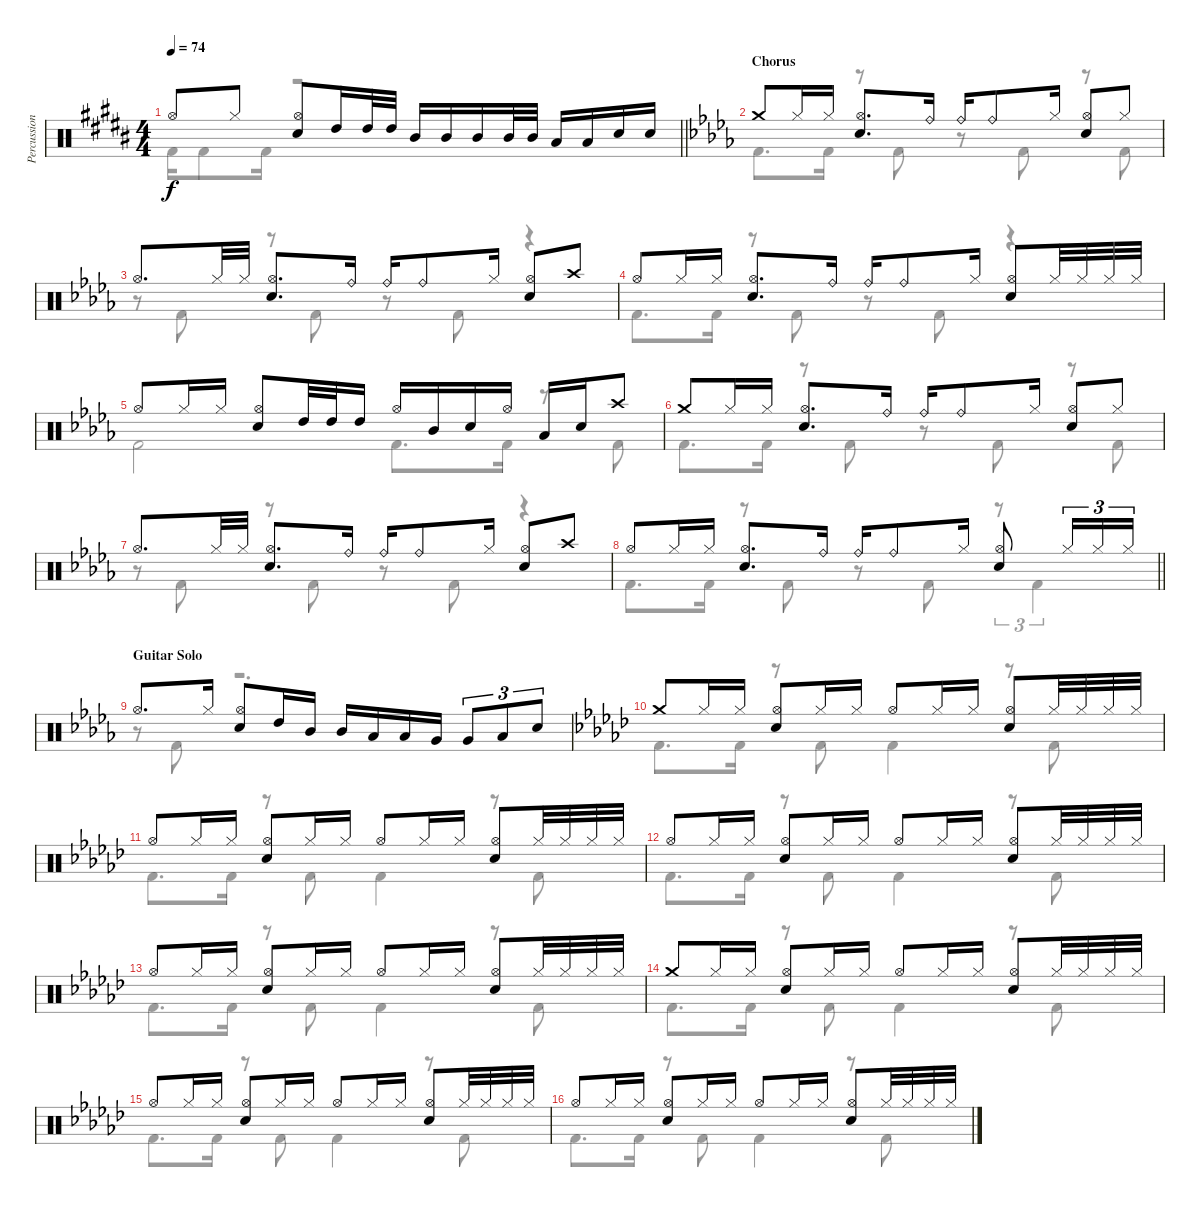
\track ("Percussion" "Percussion") {instrument percussion}
\staff {score}
\articulation defaults
\voice
\ts (4 4)
\tempo 74
\clef neutral
\barLineRight lightlight
\ks g#minor "Hi-Hat (open)".8{dy f} "Hi-Hat (closed)".8
("Hi-Hat (open)" "Snare (hit) 2").8 "High Tom (hit)".16 "High Tom (hit)".32 "High Tom (hit)".32 "Mid Tom (hit)".16 "Mid Tom (hit)".16 "Mid Tom (hit)".16 "Mid Tom (hit)".32 "Mid Tom (hit)".32 "Low Tom (hit)".16 "Low Tom (hit)".16 "Snare (hit) 2".16 "Snare (hit) 2".16 |
\section ("" "Chorus")
\ks db "Crash medium (hit)".8 "Hi-Hat (closed)".16 "Hi-Hat (closed)".16
("Hi-Hat (open)" "Snare (hit) 2").8{d} "Ride (bell)".16 "Ride (bell)".16 "Ride (bell)".8 "Hi-Hat (closed)".16 ("Hi-Hat (open)" "Snare (hit) 2").8 "Hi-Hat (closed)".8 |
"Hi-Hat (open)".8{d} "Hi-Hat (closed)".32 "Hi-Hat (closed)".32 ("Hi-Hat (open)" "Snare (hit) 2").8{d} "Ride (bell)".16 "Ride (bell)".16 "Ride (bell)".8 "Hi-Hat (closed)".16 ("Hi-Hat (open)" "Snare (hit) 2").8 "Crash high (hit)".8 |
"Hi-Hat (open)".8 "Hi-Hat (closed)".16 "Hi-Hat (closed)".16 ("Hi-Hat (open)" "Snare (hit) 2").8{d} "Ride (bell)".16 "Ride (bell)".16 "Ride (bell)".8 "Hi-Hat (closed)".16 ("Hi-Hat (open)" "Snare (hit) 2").8 "Hi-Hat (closed)".32 "Hi-Hat (closed)".32 "Hi-Hat (closed)".32 "Hi-Hat (closed)".32 |
"Hi-Hat (open)".8 "Hi-Hat (closed)".16 "Hi-Hat (closed)".16 ("Hi-Hat (open)" "Snare (hit) 2").8 "High Tom (hit)".32 "High Tom (hit)".32 "High Tom (hit)".16 "Hi-Hat (open)".16 "Mid Tom (hit)".16 "Snare (hit) 2".16 "Hi-Hat (open)".16 "Low Tom (hit)".16 "Snare (hit) 2".16 "Crash high (hit)".8 |
"Crash medium (hit)".8 "Hi-Hat (closed)".16 "Hi-Hat (closed)".16 ("Hi-Hat (open)" "Snare (hit) 2").8{d} "Ride (bell)".16 "Ride (bell)".16 "Ride (bell)".8 "Hi-Hat (closed)".16 ("Hi-Hat (open)" "Snare (hit) 2").8 "Hi-Hat (closed)".8 |
"Hi-Hat (open)".8{d} "Hi-Hat (closed)".32 "Hi-Hat (closed)".32 ("Hi-Hat (open)" "Snare (hit) 2").8{d} "Ride (bell)".16 "Ride (bell)".16 "Ride (bell)".8 "Hi-Hat (closed)".16 ("Hi-Hat (open)" "Snare (hit) 2").8 "Crash high (hit)".8 |
\barLineRight lightlight "Hi-Hat (open)".8 "Hi-Hat (closed)".16 "Hi-Hat (closed)".16
("Hi-Hat (open)" "Snare (hit) 2").8{d} "Ride (bell)".16 "Ride (bell)".16 "Ride (bell)".8 "Hi-Hat (closed)".16 ("Hi-Hat (open)" "Snare (hit) 2").8 "Hi-Hat (closed)".16{tu (3 2)} "Hi-Hat (closed)".16{tu (3 2)} "Hi-Hat (closed)".16{tu (3 2)} |
\section ("" "Guitar Solo")
"Hi-Hat (open)".8{d} "Hi-Hat (closed)".16 ("Hi-Hat (open)" "Snare (hit) 2").8 "High Tom (hit)".16 "Mid Tom (hit)".16 "Mid Tom (hit)".16 "Low Tom (hit)".16 "Low Tom (hit)".16 "Very Low Tom (hit)".16 "Very Low Tom (hit)".8{tu (3 2)} "Low Floor Tom (hit)".8{tu (3 2)} "Snare (hit) 2".8{tu (3 2)} |
\ks ebminor "Crash medium (hit)".8 "Hi-Hat (closed)".16 "Hi-Hat (closed)".16
("Hi-Hat (open)" "Snare (hit) 2").8 "Hi-Hat (closed)".16 "Hi-Hat (closed)".16 "Hi-Hat (open)".8 "Hi-Hat (closed)".16 "Hi-Hat (closed)".16 ("Hi-Hat (open)" "Snare (hit) 2").8 "Hi-Hat (closed)".32 "Hi-Hat (closed)".32 "Hi-Hat (closed)".32 "Hi-Hat (closed)".32 |
"Hi-Hat (open)".8 "Hi-Hat (closed)".16 "Hi-Hat (closed)".16 ("Hi-Hat (open)" "Snare (hit) 2").8 "Hi-Hat (closed)".16 "Hi-Hat (closed)".16 "Hi-Hat (open)".8 "Hi-Hat (closed)".16 "Hi-Hat (closed)".16 ("Hi-Hat (open)" "Snare (hit) 2").8 "Hi-Hat (closed)".32 "Hi-Hat (closed)".32 "Hi-Hat (closed)".32 "Hi-Hat (closed)".32 |
"Hi-Hat (open)".8 "Hi-Hat (closed)".16 "Hi-Hat (closed)".16 ("Hi-Hat (open)" "Snare (hit) 2").8 "Hi-Hat (closed)".16 "Hi-Hat (closed)".16 "Hi-Hat (open)".8 "Hi-Hat (closed)".16 "Hi-Hat (closed)".16 ("Hi-Hat (open)" "Snare (hit) 2").8 "Hi-Hat (closed)".32 "Hi-Hat (closed)".32 "Hi-Hat (closed)".32 "Hi-Hat (closed)".32 |
"Hi-Hat (open)".8 "Hi-Hat (closed)".16 "Hi-Hat (closed)".16 ("Hi-Hat (open)" "Snare (hit) 2").8 "Hi-Hat (closed)".16 "Hi-Hat (closed)".16 "Hi-Hat (open)".8 "Hi-Hat (closed)".16 "Hi-Hat (closed)".16 ("Hi-Hat (open)" "Snare (hit) 2").8 "Hi-Hat (closed)".32 "Hi-Hat (closed)".32 "Hi-Hat (closed)".32 "Hi-Hat (closed)".32 |
"Crash medium (hit)".8 "Hi-Hat (closed)".16 "Hi-Hat (closed)".16 ("Hi-Hat (open)" "Snare (hit) 2").8 "Hi-Hat (closed)".16 "Hi-Hat (closed)".16 "Hi-Hat (open)".8 "Hi-Hat (closed)".16 "Hi-Hat (closed)".16 ("Hi-Hat (open)" "Snare (hit) 2").8 "Hi-Hat (closed)".32 "Hi-Hat (closed)".32 "Hi-Hat (closed)".32 "Hi-Hat (closed)".32 |
"Hi-Hat (open)".8 "Hi-Hat (closed)".16 "Hi-Hat (closed)".16 ("Hi-Hat (open)" "Snare (hit) 2").8 "Hi-Hat (closed)".16 "Hi-Hat (closed)".16 "Hi-Hat (open)".8 "Hi-Hat (closed)".16 "Hi-Hat (closed)".16 ("Hi-Hat (open)" "Snare (hit) 2").8 "Hi-Hat (closed)".32 "Hi-Hat (closed)".32 "Hi-Hat (closed)".32 "Hi-Hat (closed)".32 |
"Hi-Hat (open)".8 "Hi-Hat (closed)".16 "Hi-Hat (closed)".16 ("Hi-Hat (open)" "Snare (hit) 2").8 "Hi-Hat (closed)".16 "Hi-Hat (closed)".16 "Hi-Hat (open)".8 "Hi-Hat (closed)".16 "Hi-Hat (closed)".16 ("Hi-Hat (open)" "Snare (hit) 2").8 "Hi-Hat (closed)".32 "Hi-Hat (closed)".32 "Hi-Hat (closed)".32 "Hi-Hat (closed)".32
\voice
\clef neutral
\ottava regular
\simile none
\barLineRight lightlight
\ks g#minor "Kick (hit) 2".16{dy f} "Kick (hit) 2".8 "Kick (hit) 2".16
r.2{d} |
\ks db "Kick (hit) 2".8{d} "Kick (hit) 2".16
r.8 "Kick (hit) 2".8 r.8 "Kick (hit) 2".8 r.8 "Kick (hit) 2".8 |
r.8 "Kick (hit) 2".8 r.8 "Kick (hit) 2".8 r.8 "Kick (hit) 2".8 r.4 |
"Kick (hit) 2".8{d} "Kick (hit) 2".16 r.8 "Kick (hit) 2".8 r.8 "Kick (hit) 2".8 r.4 |
"Kick (hit) 2".2 "Kick (hit) 2".8{d} "Kick (hit) 2".16 r.8 "Kick (hit) 2".8 |
"Kick (hit) 2".8{d} "Kick (hit) 2".16 r.8 "Kick (hit) 2".8 r.8 "Kick (hit) 2".8 r.8 "Kick (hit) 2".8 |
r.8 "Kick (hit) 2".8 r.8 "Kick (hit) 2".8 r.8 "Kick (hit) 2".8 r.4 |
\barLineRight lightlight "Kick (hit) 2".8{d} "Kick (hit) 2".16
r.8 "Kick (hit) 2".8 r.8 "Kick (hit) 2".8 r.8{tu (3 2)} "Kick (hit) 2".4{tu (3 2)} |
r.8 "Kick (hit) 2".8 r.2{d} |
\ks ebminor "Kick (hit) 2".8{d} "Kick (hit) 2".16
r.8 "Kick (hit) 2".8 "Kick (hit) 2".4 r.8 "Kick (hit) 2".8 |
"Kick (hit) 2".8{d} "Kick (hit) 2".16 r.8 "Kick (hit) 2".8 "Kick (hit) 2".4 r.8 "Kick (hit) 2".8 |
"Kick (hit) 2".8{d} "Kick (hit) 2".16 r.8 "Kick (hit) 2".8 "Kick (hit) 2".4 r.8 "Kick (hit) 2".8 |
"Kick (hit) 2".8{d} "Kick (hit) 2".16 r.8 "Kick (hit) 2".8 "Kick (hit) 2".4 r.8 "Kick (hit) 2".8 |
"Kick (hit) 2".8{d} "Kick (hit) 2".16 r.8 "Kick (hit) 2".8 "Kick (hit) 2".4 r.8 "Kick (hit) 2".8 |
"Kick (hit) 2".8{d} "Kick (hit) 2".16 r.8 "Kick (hit) 2".8 "Kick (hit) 2".4 r.8 "Kick (hit) 2".8 |
"Kick (hit) 2".8{d} "Kick (hit) 2".16 r.8 "Kick (hit) 2".8 "Kick (hit) 2".4 r.8 "Kick (hit) 2".8
